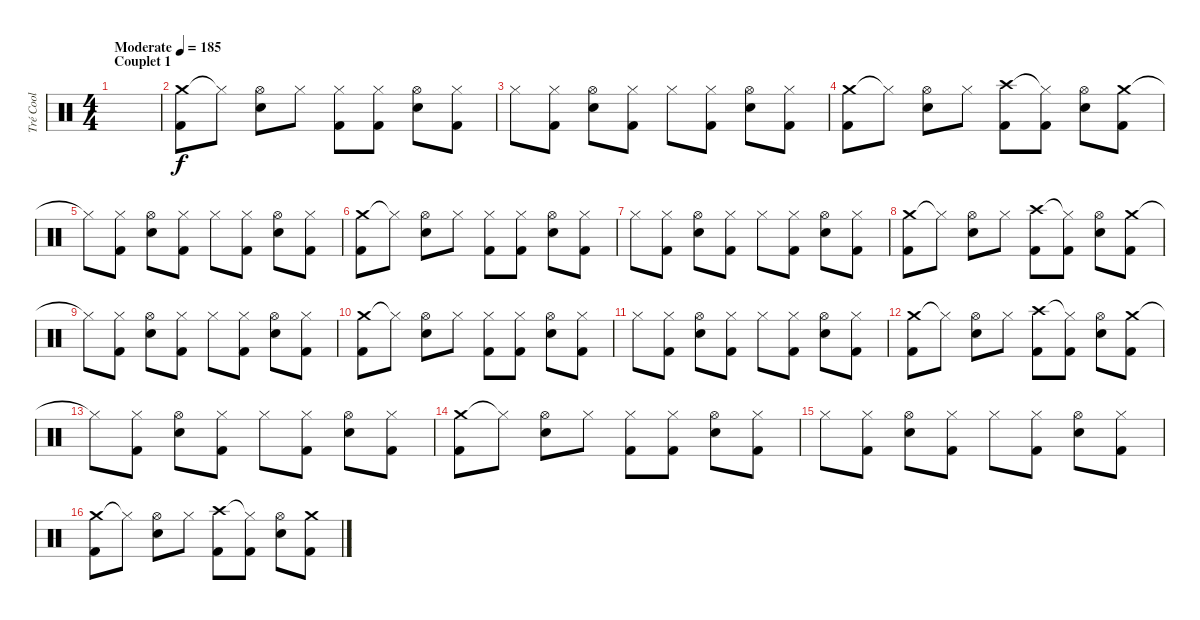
\track ("Tré Cool" "Tré Cool") {instrument percussion}
\staff {score}
\articulation defaults
\ts (4 4)
\section ("" "Couplet 1")
\tempo (185 "Moderate")
\clef neutral
\ks c
|
("Crash medium (hit)" "Kick (hit) 2").8 "Hi-Hat (closed)"{t}.8 ("Hi-Hat (open)" "Electric Snare (hit)").8 "Hi-Hat (closed)".8 ("Hi-Hat (closed)" "Kick (hit) 2").8 ("Hi-Hat (closed)" "Kick (hit) 2").8 ("Hi-Hat (open)" "Electric Snare (hit)").8 ("Hi-Hat (closed)" "Kick (hit) 2").8 |
"Hi-Hat (closed)".8 ("Hi-Hat (closed)" "Kick (hit) 2").8 ("Hi-Hat (open)" "Electric Snare (hit)").8 ("Hi-Hat (closed)" "Kick (hit) 2").8 "Hi-Hat (closed)".8 ("Hi-Hat (closed)" "Kick (hit) 2").8 ("Hi-Hat (open)" "Electric Snare (hit)").8 ("Hi-Hat (closed)" "Kick (hit) 2").8 |
("Crash medium (hit)" "Kick (hit) 2").8 "Hi-Hat (closed)"{t}.8 ("Hi-Hat (open)" "Electric Snare (hit)").8 "Hi-Hat (closed)".8 ("Crash high (hit)" "Kick (hit) 2").8 ("Hi-Hat (closed)"{t} "Kick (hit) 2").8 ("Hi-Hat (open)" "Electric Snare (hit)").8 ("Crash medium (hit)" "Kick (hit) 2").8 |
"Hi-Hat (closed)"{t}.8 ("Hi-Hat (closed)" "Kick (hit) 2").8 ("Hi-Hat (open)" "Electric Snare (hit)").8 ("Hi-Hat (closed)" "Kick (hit) 2").8 "Hi-Hat (closed)".8 ("Hi-Hat (closed)" "Kick (hit) 2").8 ("Hi-Hat (open)" "Electric Snare (hit)").8 ("Hi-Hat (closed)" "Kick (hit) 2").8 |
("Crash medium (hit)" "Kick (hit) 2").8 "Hi-Hat (closed)"{t}.8 ("Hi-Hat (open)" "Electric Snare (hit)").8 "Hi-Hat (closed)".8 ("Hi-Hat (closed)" "Kick (hit) 2").8 ("Hi-Hat (closed)" "Kick (hit) 2").8 ("Hi-Hat (open)" "Electric Snare (hit)").8 ("Hi-Hat (closed)" "Kick (hit) 2").8 |
"Hi-Hat (closed)".8 ("Hi-Hat (closed)" "Kick (hit) 2").8 ("Hi-Hat (open)" "Electric Snare (hit)").8 ("Hi-Hat (closed)" "Kick (hit) 2").8 "Hi-Hat (closed)".8 ("Hi-Hat (closed)" "Kick (hit) 2").8 ("Hi-Hat (open)" "Electric Snare (hit)").8 ("Hi-Hat (closed)" "Kick (hit) 2").8 |
("Crash medium (hit)" "Kick (hit) 2").8 "Hi-Hat (closed)"{t}.8 ("Hi-Hat (open)" "Electric Snare (hit)").8 "Hi-Hat (closed)".8 ("Crash high (hit)" "Kick (hit) 2").8 ("Hi-Hat (closed)"{t} "Kick (hit) 2").8 ("Hi-Hat (open)" "Electric Snare (hit)").8 ("Crash medium (hit)" "Kick (hit) 2").8 |
"Hi-Hat (closed)"{t}.8 ("Hi-Hat (closed)" "Kick (hit) 2").8 ("Hi-Hat (open)" "Electric Snare (hit)").8 ("Hi-Hat (closed)" "Kick (hit) 2").8 "Hi-Hat (closed)".8 ("Hi-Hat (closed)" "Kick (hit) 2").8 ("Hi-Hat (open)" "Electric Snare (hit)").8 ("Hi-Hat (closed)" "Kick (hit) 2").8 |
("Crash medium (hit)" "Kick (hit) 2").8 "Hi-Hat (closed)"{t}.8 ("Hi-Hat (open)" "Electric Snare (hit)").8 "Hi-Hat (closed)".8 ("Hi-Hat (closed)" "Kick (hit) 2").8 ("Hi-Hat (closed)" "Kick (hit) 2").8 ("Hi-Hat (open)" "Electric Snare (hit)").8 ("Hi-Hat (closed)" "Kick (hit) 2").8 |
"Hi-Hat (closed)".8 ("Hi-Hat (closed)" "Kick (hit) 2").8 ("Hi-Hat (open)" "Electric Snare (hit)").8 ("Hi-Hat (closed)" "Kick (hit) 2").8 "Hi-Hat (closed)".8 ("Hi-Hat (closed)" "Kick (hit) 2").8 ("Hi-Hat (open)" "Electric Snare (hit)").8 ("Hi-Hat (closed)" "Kick (hit) 2").8 |
("Crash medium (hit)" "Kick (hit) 2").8 "Hi-Hat (closed)"{t}.8 ("Hi-Hat (open)" "Electric Snare (hit)").8 "Hi-Hat (closed)".8 ("Crash high (hit)" "Kick (hit) 2").8 ("Hi-Hat (closed)"{t} "Kick (hit) 2").8 ("Hi-Hat (open)" "Electric Snare (hit)").8 ("Crash medium (hit)" "Kick (hit) 2").8 |
"Hi-Hat (closed)"{t}.8 ("Hi-Hat (closed)" "Kick (hit) 2").8 ("Hi-Hat (open)" "Electric Snare (hit)").8 ("Hi-Hat (closed)" "Kick (hit) 2").8 "Hi-Hat (closed)".8 ("Hi-Hat (closed)" "Kick (hit) 2").8 ("Hi-Hat (open)" "Electric Snare (hit)").8 ("Hi-Hat (closed)" "Kick (hit) 2").8 |
("Crash medium (hit)" "Kick (hit) 2").8 "Hi-Hat (closed)"{t}.8 ("Hi-Hat (open)" "Electric Snare (hit)").8 "Hi-Hat (closed)".8 ("Hi-Hat (closed)" "Kick (hit) 2").8 ("Hi-Hat (closed)" "Kick (hit) 2").8 ("Hi-Hat (open)" "Electric Snare (hit)").8 ("Hi-Hat (closed)" "Kick (hit) 2").8 |
"Hi-Hat (closed)".8 ("Hi-Hat (closed)" "Kick (hit) 2").8 ("Hi-Hat (open)" "Electric Snare (hit)").8 ("Hi-Hat (closed)" "Kick (hit) 2").8 "Hi-Hat (closed)".8 ("Hi-Hat (closed)" "Kick (hit) 2").8 ("Hi-Hat (open)" "Electric Snare (hit)").8 ("Hi-Hat (closed)" "Kick (hit) 2").8 |
("Crash medium (hit)" "Kick (hit) 2").8 "Hi-Hat (closed)"{t}.8 ("Hi-Hat (open)" "Electric Snare (hit)").8 "Hi-Hat (closed)".8 ("Crash high (hit)" "Kick (hit) 2").8 ("Hi-Hat (closed)"{t} "Kick (hit) 2").8 ("Hi-Hat (open)" "Electric Snare (hit)").8 ("Crash medium (hit)" "Kick (hit) 2").8
